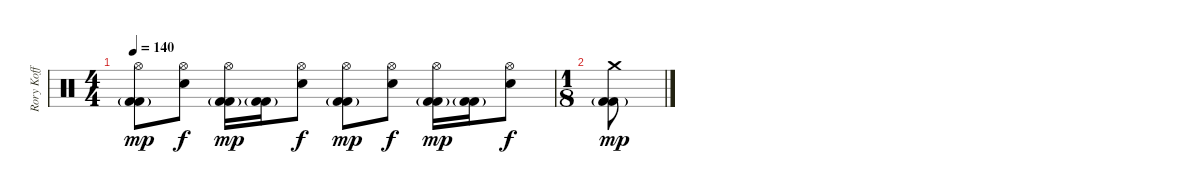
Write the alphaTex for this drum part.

\track ("Rory Koff" "Rory Koff") {instrument percussion}
\staff {score}
\articulation defaults
\ts (4 4)
\tempo 140
\clef neutral
\ks c
("Hi-Hat (open)" "Kick (hit) 2"{g} "Kick (hit) 2").8{dy mp} ("Hi-Hat (open)" "Snare (hit) 2").8{dy f} ("Hi-Hat (open)" "Kick (hit) 2"{g} "Kick (hit) 2").16{dy mp} ("Kick (hit) 2"{g} "Kick (hit) 2").16 ("Hi-Hat (open)" "Snare (hit) 2").8{dy f} ("Hi-Hat (open)" "Kick (hit) 2"{g} "Kick (hit) 2").8{dy mp} ("Hi-Hat (open)" "Snare (hit) 2").8{dy f} ("Hi-Hat (open)" "Kick (hit) 2"{g} "Kick (hit) 2").16{dy mp} ("Kick (hit) 2"{g} "Kick (hit) 2").16 ("Hi-Hat (open)" "Snare (hit) 2").8{dy f} |
\ts (1 8)
("Crash medium (hit)" "Kick (hit) 2"{g} "Kick (hit) 2").8{dy mp}
